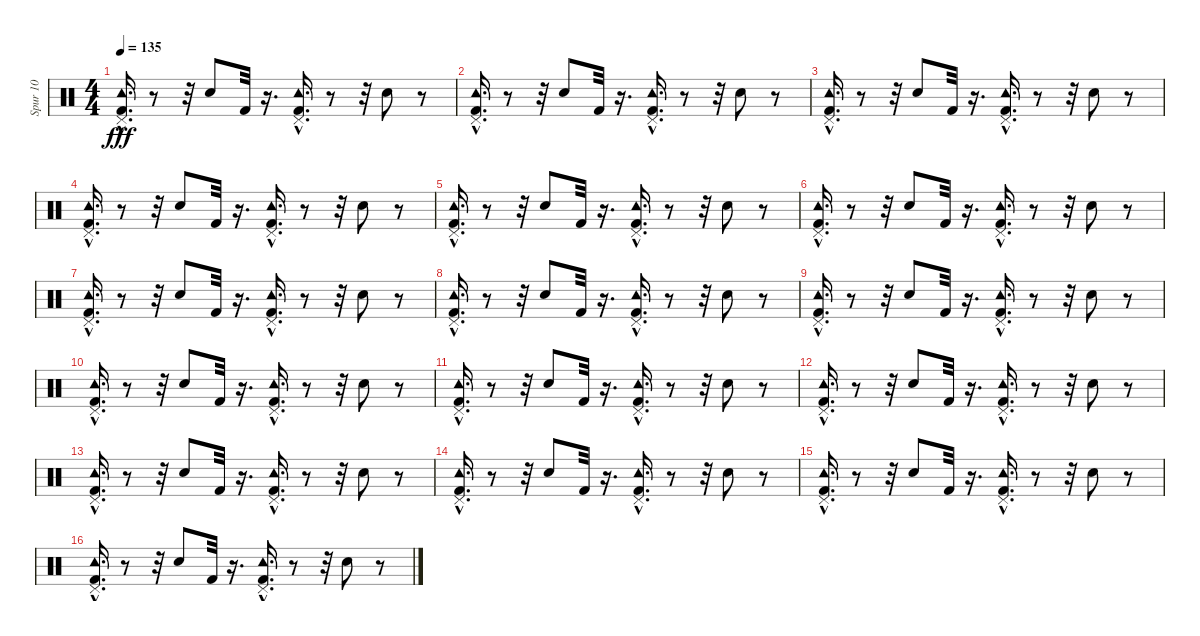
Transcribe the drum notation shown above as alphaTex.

\track ("Spur 10" "Spur 10") {instrument percussion}
\staff {score}
\articulation defaults
\ts (4 4)
\tempo 135
\clef neutral
\ks c
("Tambourine (hit)" "Kick (hit) 2"{hac} "Pedal Hi-Hat (hit)").16{d dy fff} r.8 r.32 "Electric Snare (hit)".8 "Kick (hit) 2".32 r.16{d} ("Pedal Hi-Hat (hit)" "Kick (hit) 2"{hac} "Tambourine (hit)").16{d} r.8 r.32 "Electric Snare (hit)".8 r.8 |
("Pedal Hi-Hat (hit)" "Kick (hit) 2"{hac} "Tambourine (hit)").16{d} r.8 r.32 "Electric Snare (hit)".8 "Kick (hit) 2".32 r.16{d} ("Kick (hit) 2"{hac} "Tambourine (hit)" "Pedal Hi-Hat (hit)").16{d} r.8 r.32 "Electric Snare (hit)".8 r.8 |
("Pedal Hi-Hat (hit)" "Tambourine (hit)" "Kick (hit) 2"{hac}).16{d} r.8 r.32 "Electric Snare (hit)".8 "Kick (hit) 2".32 r.16{d} ("Kick (hit) 2"{hac} "Pedal Hi-Hat (hit)" "Tambourine (hit)").16{d} r.8 r.32 "Electric Snare (hit)".8 r.8 |
("Tambourine (hit)" "Pedal Hi-Hat (hit)" "Kick (hit) 2"{hac}).16{d} r.8 r.32 "Electric Snare (hit)".8 "Kick (hit) 2".32 r.16{d} ("Kick (hit) 2"{hac} "Pedal Hi-Hat (hit)" "Tambourine (hit)").16{d} r.8 r.32 "Electric Snare (hit)".8 r.8 |
("Tambourine (hit)" "Pedal Hi-Hat (hit)" "Kick (hit) 2"{hac}).16{d} r.8 r.32 "Electric Snare (hit)".8 "Kick (hit) 2".32 r.16{d} ("Pedal Hi-Hat (hit)" "Tambourine (hit)" "Kick (hit) 2"{hac}).16{d} r.8 r.32 "Electric Snare (hit)".8 r.8 |
("Kick (hit) 2"{hac} "Pedal Hi-Hat (hit)" "Tambourine (hit)").16{d} r.8 r.32 "Electric Snare (hit)".8 "Kick (hit) 2".32 r.16{d} ("Pedal Hi-Hat (hit)" "Kick (hit) 2"{hac} "Tambourine (hit)").16{d} r.8 r.32 "Electric Snare (hit)".8 r.8 |
("Tambourine (hit)" "Kick (hit) 2"{hac} "Pedal Hi-Hat (hit)").16{d} r.8 r.32 "Electric Snare (hit)".8 "Kick (hit) 2".32 r.16{d} ("Kick (hit) 2"{hac} "Pedal Hi-Hat (hit)" "Tambourine (hit)").16{d} r.8 r.32 "Electric Snare (hit)".8 r.8 |
("Kick (hit) 2"{hac} "Tambourine (hit)" "Pedal Hi-Hat (hit)").16{d} r.8 r.32 "Electric Snare (hit)".8 "Kick (hit) 2".32 r.16{d} ("Kick (hit) 2"{hac} "Pedal Hi-Hat (hit)" "Tambourine (hit)").16{d} r.8 r.32 "Electric Snare (hit)".8 r.8 |
("Pedal Hi-Hat (hit)" "Kick (hit) 2"{hac} "Tambourine (hit)").16{d} r.8 r.32 "Electric Snare (hit)".8 "Kick (hit) 2".32 r.16{d} ("Tambourine (hit)" "Kick (hit) 2"{hac} "Pedal Hi-Hat (hit)").16{d} r.8 r.32 "Electric Snare (hit)".8 r.8 |
("Pedal Hi-Hat (hit)" "Kick (hit) 2"{hac} "Tambourine (hit)").16{d} r.8 r.32 "Electric Snare (hit)".8 "Kick (hit) 2".32 r.16{d} ("Tambourine (hit)" "Pedal Hi-Hat (hit)" "Kick (hit) 2"{hac}).16{d} r.8 r.32 "Electric Snare (hit)".8 r.8 |
("Tambourine (hit)" "Pedal Hi-Hat (hit)" "Kick (hit) 2"{hac}).16{d} r.8 r.32 "Electric Snare (hit)".8 "Kick (hit) 2".32 r.16{d} ("Kick (hit) 2"{hac} "Pedal Hi-Hat (hit)" "Tambourine (hit)").16{d} r.8 r.32 "Electric Snare (hit)".8 r.8 |
("Pedal Hi-Hat (hit)" "Kick (hit) 2"{hac} "Tambourine (hit)").16{d} r.8 r.32 "Electric Snare (hit)".8 "Kick (hit) 2".32 r.16{d} ("Tambourine (hit)" "Kick (hit) 2"{hac} "Pedal Hi-Hat (hit)").16{d} r.8 r.32 "Electric Snare (hit)".8 r.8 |
("Pedal Hi-Hat (hit)" "Kick (hit) 2"{hac} "Tambourine (hit)").16{d} r.8 r.32 "Electric Snare (hit)".8 "Kick (hit) 2".32 r.16{d} ("Pedal Hi-Hat (hit)" "Tambourine (hit)" "Kick (hit) 2"{hac}).16{d} r.8 r.32 "Electric Snare (hit)".8 r.8 |
("Tambourine (hit)" "Kick (hit) 2"{hac} "Pedal Hi-Hat (hit)").16{d} r.8 r.32 "Electric Snare (hit)".8 "Kick (hit) 2".32 r.16{d} ("Pedal Hi-Hat (hit)" "Kick (hit) 2"{hac} "Tambourine (hit)").16{d} r.8 r.32 "Electric Snare (hit)".8 r.8 |
("Tambourine (hit)" "Kick (hit) 2"{hac} "Pedal Hi-Hat (hit)").16{d} r.8 r.32 "Electric Snare (hit)".8 "Kick (hit) 2".32 r.16{d} ("Kick (hit) 2"{hac} "Pedal Hi-Hat (hit)" "Tambourine (hit)").16{d} r.8 r.32 "Electric Snare (hit)".8 r.8 |
("Tambourine (hit)" "Pedal Hi-Hat (hit)" "Kick (hit) 2"{hac}).16{d} r.8 r.32 "Electric Snare (hit)".8 "Kick (hit) 2".32 r.16{d} ("Tambourine (hit)" "Kick (hit) 2"{hac} "Pedal Hi-Hat (hit)").16{d} r.8 r.32 "Electric Snare (hit)".8 r.8
